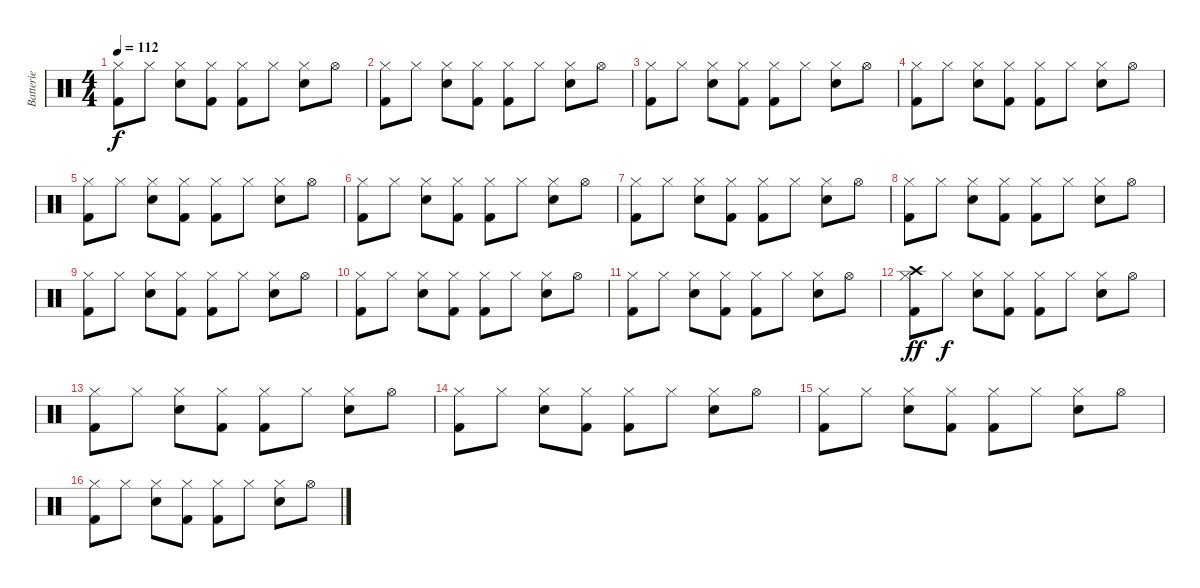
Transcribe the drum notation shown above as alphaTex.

\track ("Batterie" "Batterie") {instrument percussion}
\staff {score}
\articulation defaults
\ts (4 4)
\tempo 112
\clef neutral
\ks c
("Hi-Hat (closed)" "Kick (hit) 2").8{dy f} "Hi-Hat (closed)".8 ("Hi-Hat (closed)" "Electric Snare (hit)").8 ("Hi-Hat (closed)" "Kick (hit) 2").8 ("Hi-Hat (closed)" "Kick (hit) 2").8 "Hi-Hat (closed)".8 ("Hi-Hat (closed)" "Electric Snare (hit)").8 "Hi-Hat (open)".8 |
("Hi-Hat (closed)" "Kick (hit) 2").8 "Hi-Hat (closed)".8 ("Hi-Hat (closed)" "Electric Snare (hit)").8 ("Hi-Hat (closed)" "Kick (hit) 2").8 ("Hi-Hat (closed)" "Kick (hit) 2").8 "Hi-Hat (closed)".8 ("Hi-Hat (closed)" "Electric Snare (hit)").8 "Hi-Hat (open)".8 |
("Hi-Hat (closed)" "Kick (hit) 2").8 "Hi-Hat (closed)".8 ("Hi-Hat (closed)" "Electric Snare (hit)").8 ("Hi-Hat (closed)" "Kick (hit) 2").8 ("Hi-Hat (closed)" "Kick (hit) 2").8 "Hi-Hat (closed)".8 ("Hi-Hat (closed)" "Electric Snare (hit)").8 "Hi-Hat (open)".8 |
("Hi-Hat (closed)" "Kick (hit) 2").8 "Hi-Hat (closed)".8 ("Hi-Hat (closed)" "Electric Snare (hit)").8 ("Hi-Hat (closed)" "Kick (hit) 2").8 ("Hi-Hat (closed)" "Kick (hit) 2").8 "Hi-Hat (closed)".8 ("Hi-Hat (closed)" "Electric Snare (hit)").8 "Hi-Hat (open)".8 |
("Hi-Hat (closed)" "Kick (hit) 2").8 "Hi-Hat (closed)".8 ("Hi-Hat (closed)" "Electric Snare (hit)").8 ("Hi-Hat (closed)" "Kick (hit) 2").8 ("Hi-Hat (closed)" "Kick (hit) 2").8 "Hi-Hat (closed)".8 ("Hi-Hat (closed)" "Electric Snare (hit)").8 "Hi-Hat (open)".8 |
("Hi-Hat (closed)" "Kick (hit) 2").8 "Hi-Hat (closed)".8 ("Hi-Hat (closed)" "Electric Snare (hit)").8 ("Hi-Hat (closed)" "Kick (hit) 2").8 ("Hi-Hat (closed)" "Kick (hit) 2").8 "Hi-Hat (closed)".8 ("Hi-Hat (closed)" "Electric Snare (hit)").8 "Hi-Hat (open)".8 |
("Hi-Hat (closed)" "Kick (hit) 2").8 "Hi-Hat (closed)".8 ("Hi-Hat (closed)" "Electric Snare (hit)").8 ("Hi-Hat (closed)" "Kick (hit) 2").8 ("Hi-Hat (closed)" "Kick (hit) 2").8 "Hi-Hat (closed)".8 ("Hi-Hat (closed)" "Electric Snare (hit)").8 "Hi-Hat (open)".8 |
("Hi-Hat (closed)" "Kick (hit) 2").8 "Hi-Hat (closed)".8 ("Hi-Hat (closed)" "Electric Snare (hit)").8 ("Hi-Hat (closed)" "Kick (hit) 2").8 ("Hi-Hat (closed)" "Kick (hit) 2").8 "Hi-Hat (closed)".8 ("Hi-Hat (closed)" "Electric Snare (hit)").8 "Hi-Hat (open)".8 |
("Hi-Hat (closed)" "Kick (hit) 2").8 "Hi-Hat (closed)".8 ("Hi-Hat (closed)" "Electric Snare (hit)").8 ("Hi-Hat (closed)" "Kick (hit) 2").8 ("Hi-Hat (closed)" "Kick (hit) 2").8 "Hi-Hat (closed)".8 ("Hi-Hat (closed)" "Electric Snare (hit)").8 "Hi-Hat (open)".8 |
("Hi-Hat (closed)" "Kick (hit) 2").8 "Hi-Hat (closed)".8 ("Hi-Hat (closed)" "Electric Snare (hit)").8 ("Hi-Hat (closed)" "Kick (hit) 2").8 ("Hi-Hat (closed)" "Kick (hit) 2").8 "Hi-Hat (closed)".8 ("Hi-Hat (closed)" "Electric Snare (hit)").8 "Hi-Hat (open)".8 |
("Hi-Hat (closed)" "Kick (hit) 2").8 "Hi-Hat (closed)".8 ("Hi-Hat (closed)" "Electric Snare (hit)").8 ("Hi-Hat (closed)" "Kick (hit) 2").8 ("Hi-Hat (closed)" "Kick (hit) 2").8 "Hi-Hat (closed)".8 ("Hi-Hat (closed)" "Electric Snare (hit)").8 "Hi-Hat (open)".8 |
("Hi-Hat (closed)" "Crash high (hit)" "Kick (hit) 2").8{dy ff} "Hi-Hat (closed)".8{dy f} ("Hi-Hat (closed)" "Electric Snare (hit)").8 ("Hi-Hat (closed)" "Kick (hit) 2").8 ("Hi-Hat (closed)" "Kick (hit) 2").8 "Hi-Hat (closed)".8 ("Hi-Hat (closed)" "Electric Snare (hit)").8 "Hi-Hat (open)".8 |
("Hi-Hat (closed)" "Kick (hit) 2").8 "Hi-Hat (closed)".8 ("Hi-Hat (closed)" "Electric Snare (hit)").8 ("Hi-Hat (closed)" "Kick (hit) 2").8 ("Hi-Hat (closed)" "Kick (hit) 2").8 "Hi-Hat (closed)".8 ("Hi-Hat (closed)" "Electric Snare (hit)").8 "Hi-Hat (open)".8 |
("Hi-Hat (closed)" "Kick (hit) 2").8 "Hi-Hat (closed)".8 ("Hi-Hat (closed)" "Electric Snare (hit)").8 ("Hi-Hat (closed)" "Kick (hit) 2").8 ("Hi-Hat (closed)" "Kick (hit) 2").8 "Hi-Hat (closed)".8 ("Hi-Hat (closed)" "Electric Snare (hit)").8 "Hi-Hat (open)".8 |
("Hi-Hat (closed)" "Kick (hit) 2").8 "Hi-Hat (closed)".8 ("Hi-Hat (closed)" "Electric Snare (hit)").8 ("Hi-Hat (closed)" "Kick (hit) 2").8 ("Hi-Hat (closed)" "Kick (hit) 2").8 "Hi-Hat (closed)".8 ("Hi-Hat (closed)" "Electric Snare (hit)").8 "Hi-Hat (open)".8 |
("Hi-Hat (closed)" "Kick (hit) 2").8 "Hi-Hat (closed)".8 ("Hi-Hat (closed)" "Electric Snare (hit)").8 ("Hi-Hat (closed)" "Kick (hit) 2").8 ("Hi-Hat (closed)" "Kick (hit) 2").8 "Hi-Hat (closed)".8 ("Hi-Hat (closed)" "Electric Snare (hit)").8 "Hi-Hat (open)".8
